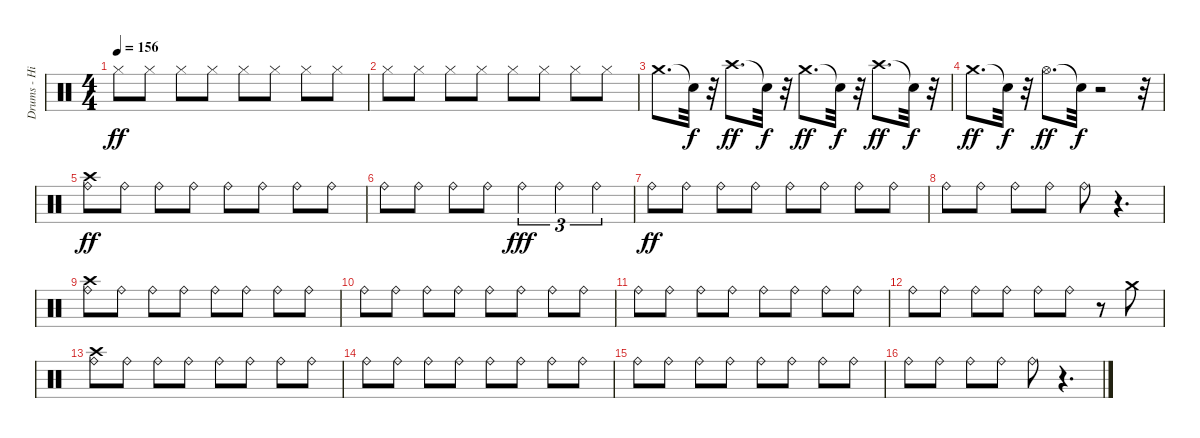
\track ("Drums - Hi Hat/Cymbals" "Drums - Hi") {instrument percussion}
\staff {score}
\articulation defaults
\ts (4 4)
\tempo 156
\clef neutral
\ks c "Hi-Hat (closed)".8{dy ff} "Hi-Hat (closed)".8 "Hi-Hat (closed)".8 "Hi-Hat (closed)".8 "Hi-Hat (closed)".8 "Hi-Hat (closed)".8 "Hi-Hat (closed)".8 "Hi-Hat (closed)".8
|
"Hi-Hat (closed)".8 "Hi-Hat (closed)".8 "Hi-Hat (closed)".8 "Hi-Hat (closed)".8 "Hi-Hat (closed)".8 "Hi-Hat (closed)".8 "Hi-Hat (closed)".8 "Hi-Hat (closed)".8 |
"Crash medium (hit)".8{d} "Snare (hit)"{t}.32{dy f} r.32 "Crash high (hit)".8{d dy ff} "Snare (hit)"{t}.32{dy f} r.32 "Crash medium (hit)".8{d dy ff} "Snare (hit)"{t}.32{dy f} r.32 "Crash high (hit)".8{d dy ff} "Snare (hit)"{t}.32{dy f} r.32 |
"Crash medium (hit)".8{d dy ff} "Snare (hit)"{t}.32{dy f} r.32 "Hi-Hat (open)".8{d dy ff} "Snare (hit)"{t}.32{dy f} r.2 r.32 |
("Crash high (hit)" "Ride (bell)").8{dy ff} "Ride (bell)".8 "Ride (bell)".8 "Ride (bell)".8 "Ride (bell)".8 "Ride (bell)".8 "Ride (bell)".8 "Ride (bell)".8 |
"Ride (bell)".8 "Ride (bell)".8 "Ride (bell)".8 "Ride (bell)".8 "Ride (bell)".4{tu (3 2) dy fff} "Ride (bell)".4{tu (3 2)} "Ride (bell)".4{tu (3 2)} |
"Ride (bell)".8{dy ff} "Ride (bell)".8 "Ride (bell)".8 "Ride (bell)".8 "Ride (bell)".8 "Ride (bell)".8 "Ride (bell)".8 "Ride (bell)".8 |
"Ride (bell)".8 "Ride (bell)".8 "Ride (bell)".8 "Ride (bell)".8 "Ride (bell)".8 r.4{d} |
("Crash high (hit)" "Ride (bell)").8 "Ride (bell)".8 "Ride (bell)".8 "Ride (bell)".8 "Ride (bell)".8 "Ride (bell)".8 "Ride (bell)".8 "Ride (bell)".8 |
"Ride (bell)".8 "Ride (bell)".8 "Ride (bell)".8 "Ride (bell)".8 "Ride (bell)".8 "Ride (bell)".8 "Ride (bell)".8 "Ride (bell)".8 |
"Ride (bell)".8 "Ride (bell)".8 "Ride (bell)".8 "Ride (bell)".8 "Ride (bell)".8 "Ride (bell)".8 "Ride (bell)".8 "Ride (bell)".8 |
"Ride (bell)".8 "Ride (bell)".8 "Ride (bell)".8 "Ride (bell)".8 "Ride (bell)".8 "Ride (bell)".8 r.8 "Crash medium (hit)".8 |
("Crash high (hit)" "Ride (bell)").8 "Ride (bell)".8 "Ride (bell)".8 "Ride (bell)".8 "Ride (bell)".8 "Ride (bell)".8 "Ride (bell)".8 "Ride (bell)".8 |
"Ride (bell)".8 "Ride (bell)".8 "Ride (bell)".8 "Ride (bell)".8 "Ride (bell)".8 "Ride (bell)".8 "Ride (bell)".8 "Ride (bell)".8 |
"Ride (bell)".8 "Ride (bell)".8 "Ride (bell)".8 "Ride (bell)".8 "Ride (bell)".8 "Ride (bell)".8 "Ride (bell)".8 "Ride (bell)".8 |
"Ride (bell)".8 "Ride (bell)".8 "Ride (bell)".8 "Ride (bell)".8 "Ride (bell)".8 r.4{d}
